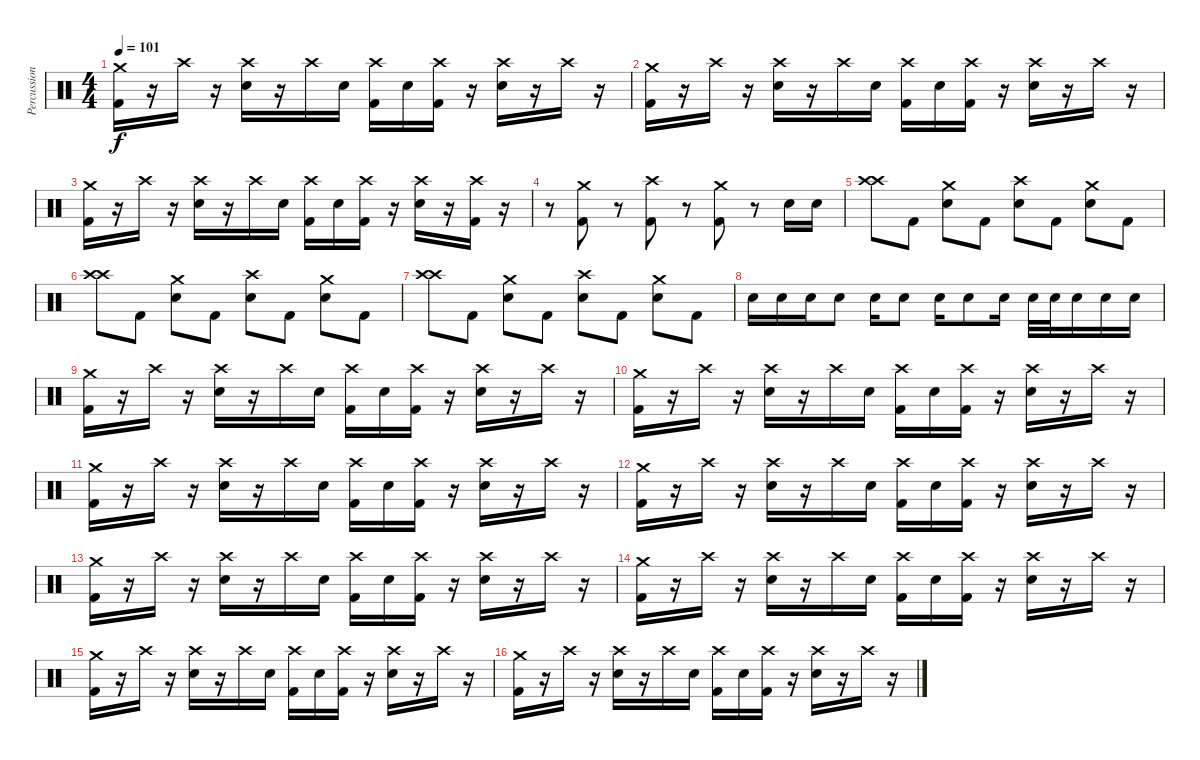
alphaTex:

\track ("Percussioni" "Percussion") {instrument percussion}
\staff {score}
\articulation defaults
\ts (4 4)
\tempo 101
\clef neutral
\ks c
("Crash medium (hit)" "Kick (hit) 2").16{dy f} r.16 "Crash high (hit)".16 r.16 ("Crash high (hit)" "Electric Snare (hit)").16 r.16 "Crash high (hit)".16 "Electric Snare (hit)".16 ("Crash high (hit)" "Kick (hit) 2").16 "Electric Snare (hit)".16 ("Crash high (hit)" "Kick (hit) 2").16 r.16 ("Crash high (hit)" "Electric Snare (hit)").16 r.16 "Crash high (hit)".16 r.16 |
("Crash medium (hit)" "Kick (hit) 2").16 r.16 "Crash high (hit)".16 r.16 ("Crash high (hit)" "Electric Snare (hit)").16 r.16 "Crash high (hit)".16 "Electric Snare (hit)".16 ("Crash high (hit)" "Kick (hit) 2").16 "Electric Snare (hit)".16 ("Crash high (hit)" "Kick (hit) 2").16 r.16 ("Crash high (hit)" "Electric Snare (hit)").16 r.16 "Crash high (hit)".16 r.16 |
("Crash medium (hit)" "Kick (hit) 2").16 r.16 "Crash high (hit)".16 r.16 ("Crash high (hit)" "Electric Snare (hit)").16 r.16 "Crash high (hit)".16 "Electric Snare (hit)".16 ("Crash high (hit)" "Kick (hit) 2").16 "Electric Snare (hit)".16 ("Crash high (hit)" "Kick (hit) 2").16 r.16 ("Crash high (hit)" "Electric Snare (hit)").16 r.16 ("Crash high (hit)" "Kick (hit) 2").16 r.16 |
r.8 ("Crash medium (hit)" "Kick (hit) 2").8 r.8 ("Crash high (hit)" "Kick (hit) 2").8 r.8 ("Crash medium (hit)" "Kick (hit) 2").8 r.8 "Electric Snare (hit)".16 "Electric Snare (hit)".16 |
("Crash high (hit)" "Crash high (hit)").8 "Kick (hit) 2".8 ("Crash medium (hit)" "Electric Snare (hit)").8 "Kick (hit) 2".8 ("Crash high (hit)" "Electric Snare (hit)").8 "Kick (hit) 2".8 ("Crash medium (hit)" "Electric Snare (hit)").8 "Kick (hit) 2".8 |
("Crash high (hit)" "Crash high (hit)").8 "Kick (hit) 2".8 ("Crash medium (hit)" "Electric Snare (hit)").8 "Kick (hit) 2".8 ("Crash high (hit)" "Electric Snare (hit)").8 "Kick (hit) 2".8 ("Crash medium (hit)" "Electric Snare (hit)").8 "Kick (hit) 2".8 |
("Crash high (hit)" "Crash high (hit)").8 "Kick (hit) 2".8 ("Crash medium (hit)" "Electric Snare (hit)").8 "Kick (hit) 2".8 ("Crash high (hit)" "Electric Snare (hit)").8 "Kick (hit) 2".8 ("Crash medium (hit)" "Electric Snare (hit)").8 "Kick (hit) 2".8 |
"Electric Snare (hit)".16 "Electric Snare (hit)".16 "Electric Snare (hit)".16 "Electric Snare (hit)".8 "Electric Snare (hit)".16 "Electric Snare (hit)".8 "Electric Snare (hit)".16 "Electric Snare (hit)".8 "Electric Snare (hit)".16 "Electric Snare (hit)".32 "Electric Snare (hit)".32 "Electric Snare (hit)".16 "Electric Snare (hit)".16 "Electric Snare (hit)".16 |
("Crash medium (hit)" "Kick (hit) 2").16 r.16 "Crash high (hit)".16 r.16 ("Crash high (hit)" "Electric Snare (hit)").16 r.16 "Crash high (hit)".16 "Electric Snare (hit)".16 ("Crash high (hit)" "Kick (hit) 2").16 "Electric Snare (hit)".16 ("Crash high (hit)" "Kick (hit) 2").16 r.16 ("Crash high (hit)" "Electric Snare (hit)").16 r.16 "Crash high (hit)".16 r.16 |
("Crash medium (hit)" "Kick (hit) 2").16 r.16 "Crash high (hit)".16 r.16 ("Crash high (hit)" "Electric Snare (hit)").16 r.16 "Crash high (hit)".16 "Electric Snare (hit)".16 ("Crash high (hit)" "Kick (hit) 2").16 "Electric Snare (hit)".16 ("Crash high (hit)" "Kick (hit) 2").16 r.16 ("Crash high (hit)" "Electric Snare (hit)").16 r.16 "Crash high (hit)".16 r.16 |
("Crash medium (hit)" "Kick (hit) 2").16 r.16 "Crash high (hit)".16 r.16 ("Crash high (hit)" "Electric Snare (hit)").16 r.16 "Crash high (hit)".16 "Electric Snare (hit)".16 ("Crash high (hit)" "Kick (hit) 2").16 "Electric Snare (hit)".16 ("Crash high (hit)" "Kick (hit) 2").16 r.16 ("Crash high (hit)" "Electric Snare (hit)").16 r.16 "Crash high (hit)".16 r.16 |
("Crash medium (hit)" "Kick (hit) 2").16 r.16 "Crash high (hit)".16 r.16 ("Crash high (hit)" "Electric Snare (hit)").16 r.16 "Crash high (hit)".16 "Electric Snare (hit)".16 ("Crash high (hit)" "Kick (hit) 2").16 "Electric Snare (hit)".16 ("Crash high (hit)" "Kick (hit) 2").16 r.16 ("Crash high (hit)" "Electric Snare (hit)").16 r.16 "Crash high (hit)".16 r.16 |
("Crash medium (hit)" "Kick (hit) 2").16 r.16 "Crash high (hit)".16 r.16 ("Crash high (hit)" "Electric Snare (hit)").16 r.16 "Crash high (hit)".16 "Electric Snare (hit)".16 ("Crash high (hit)" "Kick (hit) 2").16 "Electric Snare (hit)".16 ("Crash high (hit)" "Kick (hit) 2").16 r.16 ("Crash high (hit)" "Electric Snare (hit)").16 r.16 "Crash high (hit)".16 r.16 |
("Crash medium (hit)" "Kick (hit) 2").16 r.16 "Crash high (hit)".16 r.16 ("Crash high (hit)" "Electric Snare (hit)").16 r.16 "Crash high (hit)".16 "Electric Snare (hit)".16 ("Crash high (hit)" "Kick (hit) 2").16 "Electric Snare (hit)".16 ("Crash high (hit)" "Kick (hit) 2").16 r.16 ("Crash high (hit)" "Electric Snare (hit)").16 r.16 "Crash high (hit)".16 r.16 |
("Crash medium (hit)" "Kick (hit) 2").16 r.16 "Crash high (hit)".16 r.16 ("Crash high (hit)" "Electric Snare (hit)").16 r.16 "Crash high (hit)".16 "Electric Snare (hit)".16 ("Crash high (hit)" "Kick (hit) 2").16 "Electric Snare (hit)".16 ("Crash high (hit)" "Kick (hit) 2").16 r.16 ("Crash high (hit)" "Electric Snare (hit)").16 r.16 "Crash high (hit)".16 r.16 |
("Crash medium (hit)" "Kick (hit) 2").16 r.16 "Crash high (hit)".16 r.16 ("Crash high (hit)" "Electric Snare (hit)").16 r.16 "Crash high (hit)".16 "Electric Snare (hit)".16 ("Crash high (hit)" "Kick (hit) 2").16 "Electric Snare (hit)".16 ("Crash high (hit)" "Kick (hit) 2").16 r.16 ("Crash high (hit)" "Electric Snare (hit)").16 r.16 "Crash high (hit)".16 r.16
